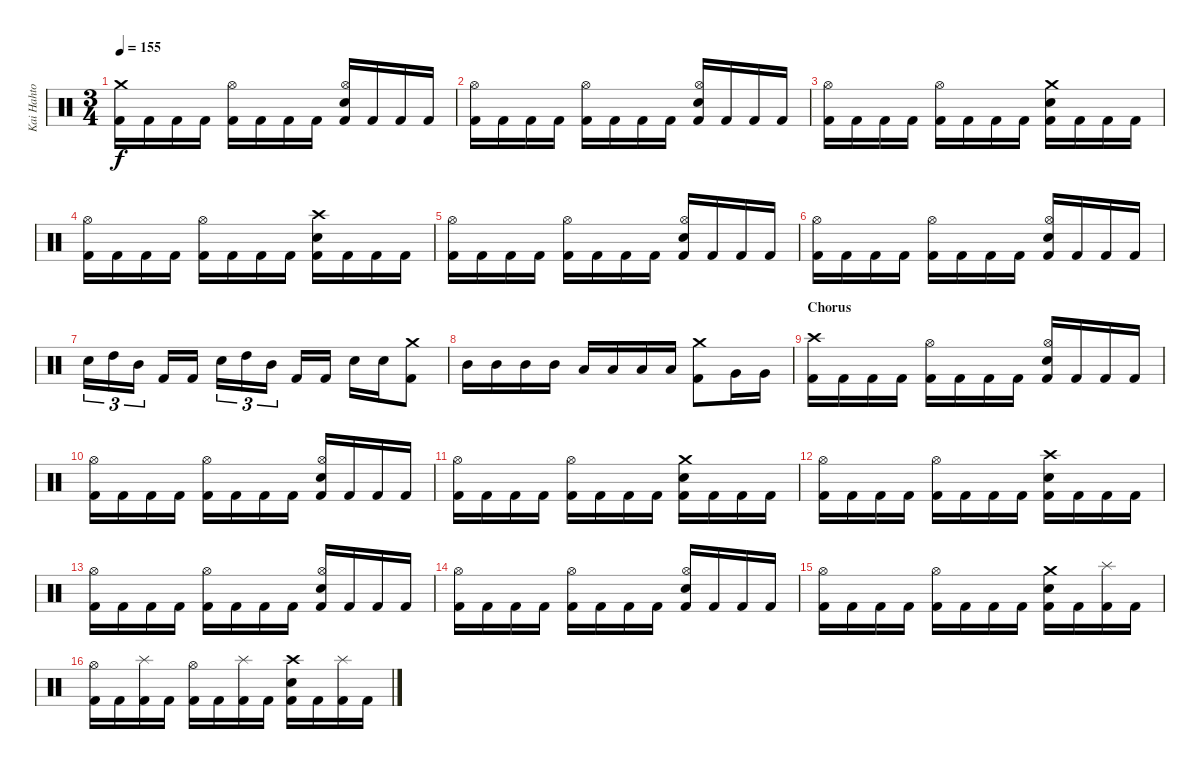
\track ("Kai Hahto" "Kai Hahto") {instrument percussion}
\staff {score}
\articulation defaults
\ts (3 4)
\tempo 155
\clef neutral
\ks c
("Crash medium (hit)" "Kick (hit) 2").16{dy f} "Kick (hit) 2".16 "Kick (hit) 2".16 "Kick (hit) 2".16 ("Hi-Hat (open)" "Kick (hit) 2").16 "Kick (hit) 2".16 "Kick (hit) 2".16 "Kick (hit) 2".16 ("Hi-Hat (open)" "Electric Snare (hit)" "Kick (hit) 2").16 "Kick (hit) 2".16 "Kick (hit) 2".16 "Kick (hit) 2".16 |
("Hi-Hat (open)" "Kick (hit) 2").16 "Kick (hit) 2".16 "Kick (hit) 2".16 "Kick (hit) 2".16 ("Hi-Hat (open)" "Kick (hit) 2").16 "Kick (hit) 2".16 "Kick (hit) 2".16 "Kick (hit) 2".16 ("Hi-Hat (open)" "Electric Snare (hit)" "Kick (hit) 2").16 "Kick (hit) 2".16 "Kick (hit) 2".16 "Kick (hit) 2".16 |
("Hi-Hat (open)" "Kick (hit) 2").16 "Kick (hit) 2".16 "Kick (hit) 2".16 "Kick (hit) 2".16 ("Hi-Hat (open)" "Kick (hit) 2").16 "Kick (hit) 2".16 "Kick (hit) 2".16 "Kick (hit) 2".16 ("Crash medium (hit)" "Electric Snare (hit)" "Kick (hit) 2").16 "Kick (hit) 2".16 "Kick (hit) 2".16 "Kick (hit) 2".16 |
("Hi-Hat (open)" "Kick (hit) 2").16 "Kick (hit) 2".16 "Kick (hit) 2".16 "Kick (hit) 2".16 ("Hi-Hat (open)" "Kick (hit) 2").16 "Kick (hit) 2".16 "Kick (hit) 2".16 "Kick (hit) 2".16 ("Crash high (hit)" "Electric Snare (hit)" "Kick (hit) 2").16 "Kick (hit) 2".16 "Kick (hit) 2".16 "Kick (hit) 2".16 |
("Hi-Hat (open)" "Kick (hit) 2").16 "Kick (hit) 2".16 "Kick (hit) 2".16 "Kick (hit) 2".16 ("Hi-Hat (open)" "Kick (hit) 2").16 "Kick (hit) 2".16 "Kick (hit) 2".16 "Kick (hit) 2".16 ("Hi-Hat (open)" "Electric Snare (hit)" "Kick (hit) 2").16 "Kick (hit) 2".16 "Kick (hit) 2".16 "Kick (hit) 2".16 |
("Hi-Hat (open)" "Kick (hit) 2").16 "Kick (hit) 2".16 "Kick (hit) 2".16 "Kick (hit) 2".16 ("Hi-Hat (open)" "Kick (hit) 2").16 "Kick (hit) 2".16 "Kick (hit) 2".16 "Kick (hit) 2".16 ("Hi-Hat (open)" "Electric Snare (hit)" "Kick (hit) 2").16 "Kick (hit) 2".16 "Kick (hit) 2".16 "Kick (hit) 2".16 |
"Electric Snare (hit)".16{tu (3 2)} "High Tom (hit)".16{tu (3 2)} "Mid Tom (hit)".16{tu (3 2)} "Kick (hit) 2".16 "Kick (hit) 2".16 "Electric Snare (hit)".16{tu (3 2)} "High Tom (hit)".16{tu (3 2)} "Mid Tom (hit)".16{tu (3 2)} "Kick (hit) 2".16 "Kick (hit) 2".16 "Electric Snare (hit)".16 "Electric Snare (hit)".16 ("Crash medium (hit)" "Kick (hit) 2").8 |
"Mid Tom (hit)".16 "Mid Tom (hit)".16 "Mid Tom (hit)".16 "Mid Tom (hit)".16 "Low Tom (hit)".16 "Low Tom (hit)".16 "Low Tom (hit)".16 "Low Tom (hit)".16 ("Crash medium (hit)" "Kick (hit) 2").8 "Very Low Tom (hit)".16 "Very Low Tom (hit)".16 |
\section ("" "Chorus")
("Crash high (hit)" "Kick (hit) 2").16 "Kick (hit) 2".16 "Kick (hit) 2".16 "Kick (hit) 2".16 ("Hi-Hat (open)" "Kick (hit) 2").16 "Kick (hit) 2".16 "Kick (hit) 2".16 "Kick (hit) 2".16 ("Hi-Hat (open)" "Electric Snare (hit)" "Kick (hit) 2").16 "Kick (hit) 2".16 "Kick (hit) 2".16 "Kick (hit) 2".16 |
("Hi-Hat (open)" "Kick (hit) 2").16 "Kick (hit) 2".16 "Kick (hit) 2".16 "Kick (hit) 2".16 ("Hi-Hat (open)" "Kick (hit) 2").16 "Kick (hit) 2".16 "Kick (hit) 2".16 "Kick (hit) 2".16 ("Hi-Hat (open)" "Electric Snare (hit)" "Kick (hit) 2").16 "Kick (hit) 2".16 "Kick (hit) 2".16 "Kick (hit) 2".16 |
("Hi-Hat (open)" "Kick (hit) 2").16 "Kick (hit) 2".16 "Kick (hit) 2".16 "Kick (hit) 2".16 ("Hi-Hat (open)" "Kick (hit) 2").16 "Kick (hit) 2".16 "Kick (hit) 2".16 "Kick (hit) 2".16 ("Crash medium (hit)" "Electric Snare (hit)" "Kick (hit) 2").16 "Kick (hit) 2".16 "Kick (hit) 2".16 "Kick (hit) 2".16 |
("Hi-Hat (open)" "Kick (hit) 2").16 "Kick (hit) 2".16 "Kick (hit) 2".16 "Kick (hit) 2".16 ("Hi-Hat (open)" "Kick (hit) 2").16 "Kick (hit) 2".16 "Kick (hit) 2".16 "Kick (hit) 2".16 ("Crash high (hit)" "Electric Snare (hit)" "Kick (hit) 2").16 "Kick (hit) 2".16 "Kick (hit) 2".16 "Kick (hit) 2".16 |
("Hi-Hat (open)" "Kick (hit) 2").16 "Kick (hit) 2".16 "Kick (hit) 2".16 "Kick (hit) 2".16 ("Hi-Hat (open)" "Kick (hit) 2").16 "Kick (hit) 2".16 "Kick (hit) 2".16 "Kick (hit) 2".16 ("Hi-Hat (open)" "Electric Snare (hit)" "Kick (hit) 2").16 "Kick (hit) 2".16 "Kick (hit) 2".16 "Kick (hit) 2".16 |
("Hi-Hat (open)" "Kick (hit) 2").16 "Kick (hit) 2".16 "Kick (hit) 2".16 "Kick (hit) 2".16 ("Hi-Hat (open)" "Kick (hit) 2").16 "Kick (hit) 2".16 "Kick (hit) 2".16 "Kick (hit) 2".16 ("Hi-Hat (open)" "Electric Snare (hit)" "Kick (hit) 2").16 "Kick (hit) 2".16 "Kick (hit) 2".16 "Kick (hit) 2".16 |
("Hi-Hat (open)" "Kick (hit) 2").16 "Kick (hit) 2".16 "Kick (hit) 2".16 "Kick (hit) 2".16 ("Hi-Hat (open)" "Kick (hit) 2").16 "Kick (hit) 2".16 "Kick (hit) 2".16 "Kick (hit) 2".16 ("Crash medium (hit)" "Electric Snare (hit)" "Kick (hit) 2").16 "Kick (hit) 2".16 ("Splash (hit)" "Kick (hit) 2").16 "Kick (hit) 2".16 |
("Hi-Hat (open)" "Kick (hit) 2").16 "Kick (hit) 2".16 ("Splash (hit)" "Kick (hit) 2").16 "Kick (hit) 2".16 ("Hi-Hat (open)" "Kick (hit) 2").16 "Kick (hit) 2".16 ("Splash (hit)" "Kick (hit) 2").16 "Kick (hit) 2".16 ("Crash high (hit)" "Electric Snare (hit)" "Kick (hit) 2").16 "Kick (hit) 2".16 ("Splash (hit)" "Kick (hit) 2").16 "Kick (hit) 2".16
